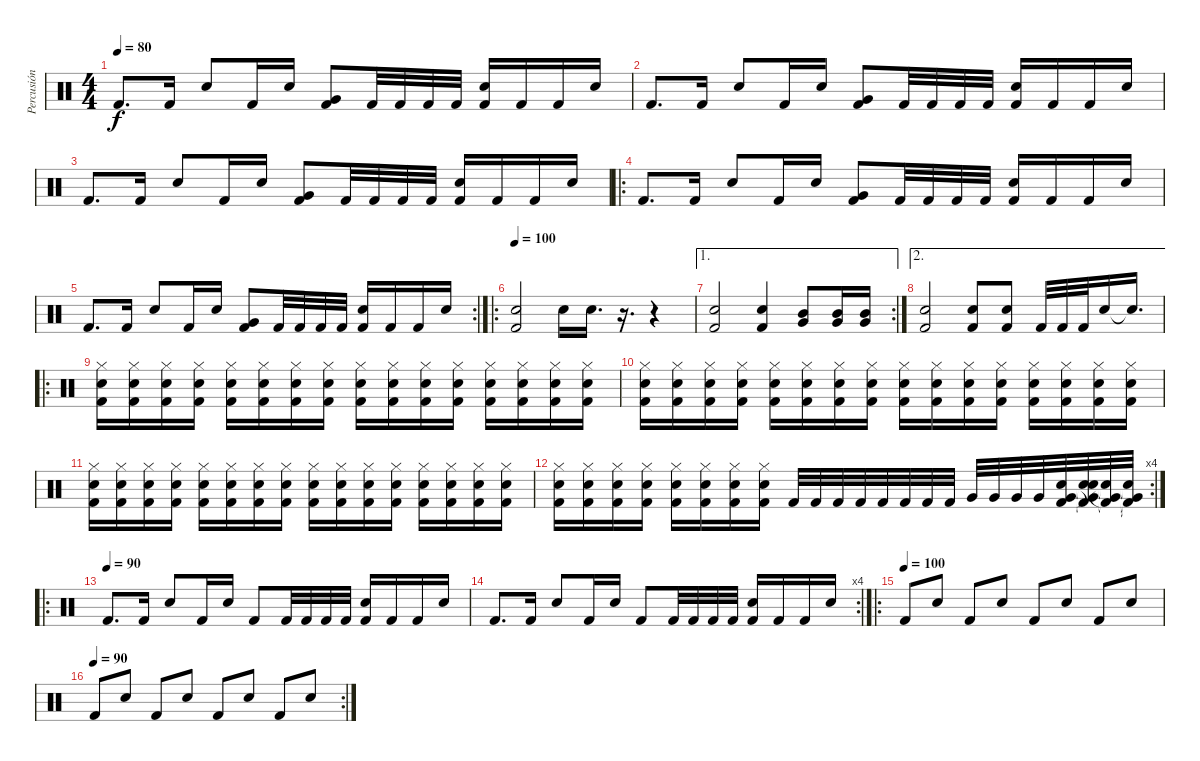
\track ("Percusión" "Percusión") {instrument percussion}
\staff {score}
\articulation defaults
\ts (4 4)
\tempo 80
\clef neutral
\ks c "Kick (hit) 2".8{d dy f} "Kick (hit) 2".16 "Snare (hit) 2".8 "Kick (hit) 2".16 "Snare (hit) 2".16
("Very Low Tom (hit)" "Kick (hit) 2").8 "Kick (hit) 2".32 "Kick (hit) 2".32 "Kick (hit) 2".32 "Kick (hit) 2".32 ("Snare (hit) 2" "Kick (hit) 2").16 "Kick (hit) 2".16 "Kick (hit) 2".16 "Snare (hit) 2".16 |
"Kick (hit) 2".8{d} "Kick (hit) 2".16 "Snare (hit) 2".8 "Kick (hit) 2".16 "Snare (hit) 2".16 ("Very Low Tom (hit)" "Kick (hit) 2").8 "Kick (hit) 2".32 "Kick (hit) 2".32 "Kick (hit) 2".32 "Kick (hit) 2".32 ("Snare (hit) 2" "Kick (hit) 2").16 "Kick (hit) 2".16 "Kick (hit) 2".16 "Snare (hit) 2".16 |
"Kick (hit) 2".8{d} "Kick (hit) 2".16 "Snare (hit) 2".8 "Kick (hit) 2".16 "Snare (hit) 2".16 ("Very Low Tom (hit)" "Kick (hit) 2").8 "Kick (hit) 2".32 "Kick (hit) 2".32 "Kick (hit) 2".32 "Kick (hit) 2".32 ("Snare (hit) 2" "Kick (hit) 2").16 "Kick (hit) 2".16 "Kick (hit) 2".16 "Snare (hit) 2".16 |
\ro "Kick (hit) 2".8{d} "Kick (hit) 2".16 "Snare (hit) 2".8 "Kick (hit) 2".16 "Snare (hit) 2".16
("Very Low Tom (hit)" "Kick (hit) 2").8 "Kick (hit) 2".32 "Kick (hit) 2".32 "Kick (hit) 2".32 "Kick (hit) 2".32 ("Snare (hit) 2" "Kick (hit) 2").16 "Kick (hit) 2".16 "Kick (hit) 2".16 "Snare (hit) 2".16 |
\rc 2 "Kick (hit) 2".8{d} "Kick (hit) 2".16 "Snare (hit) 2".8 "Kick (hit) 2".16 "Snare (hit) 2".16
("Very Low Tom (hit)" "Kick (hit) 2").8 "Kick (hit) 2".32 "Kick (hit) 2".32 "Kick (hit) 2".32 "Kick (hit) 2".32 ("Snare (hit) 2" "Kick (hit) 2").16 "Kick (hit) 2".16 "Kick (hit) 2".16 "Snare (hit) 2".16 |
\ro
\tempo 100
("Snare (hit) 2" "Kick (hit) 2").2 "Snare (hit) 2".16 "Snare (hit) 2".16{d} r.16{d} r.4 |
\ae 1
\rc 2
("Snare (hit) 2" "Kick (hit) 2").2 ("Snare (hit) 2" "Kick (hit) 2").4 ("Very Low Tom (hit)" "Mid Tom (hit)").8 ("Very Low Tom (hit)" "Mid Tom (hit)").16 ("Very Low Tom (hit)" "Mid Tom (hit)").16 |
\ae 2
("Snare (hit) 2" "Kick (hit) 2").2 ("Snare (hit) 2" "Kick (hit) 2").8 ("Snare (hit) 2" "Kick (hit) 2").8 "Kick (hit) 2".32 "Kick (hit) 2".32 "Kick (hit) 2".32 "Snare (hit) 2".16 "Snare (hit)"{t}.16{d} |
\ro
("Hi-Hat (closed)" "Snare (hit) 2" "Kick (hit) 2").16 ("Hi-Hat (closed)" "Snare (hit) 2" "Kick (hit) 2").16 ("Hi-Hat (closed)" "Snare (hit) 2" "Kick (hit) 2").16 ("Hi-Hat (closed)" "Snare (hit) 2" "Kick (hit) 2").16 ("Hi-Hat (closed)" "Snare (hit) 2" "Kick (hit) 2").16 ("Hi-Hat (closed)" "Snare (hit) 2" "Kick (hit) 2").16 ("Hi-Hat (closed)" "Snare (hit) 2" "Kick (hit) 2").16 ("Hi-Hat (closed)" "Snare (hit) 2" "Kick (hit) 2").16 ("Hi-Hat (closed)" "Snare (hit) 2" "Kick (hit) 2").16 ("Hi-Hat (closed)" "Snare (hit) 2" "Kick (hit) 2").16 ("Hi-Hat (closed)" "Snare (hit) 2" "Kick (hit) 2").16 ("Hi-Hat (closed)" "Snare (hit) 2" "Kick (hit) 2").16 ("Hi-Hat (closed)" "Snare (hit) 2" "Kick (hit) 2").16 ("Hi-Hat (closed)" "Snare (hit) 2" "Kick (hit) 2").16 ("Hi-Hat (closed)" "Snare (hit) 2" "Kick (hit) 2").16 ("Hi-Hat (closed)" "Snare (hit) 2" "Kick (hit) 2").16 |
("Hi-Hat (closed)" "Snare (hit) 2" "Kick (hit) 2").16 ("Hi-Hat (closed)" "Snare (hit) 2" "Kick (hit) 2").16 ("Hi-Hat (closed)" "Snare (hit) 2" "Kick (hit) 2").16 ("Hi-Hat (closed)" "Snare (hit) 2" "Kick (hit) 2").16 ("Hi-Hat (closed)" "Snare (hit) 2" "Kick (hit) 2").16 ("Hi-Hat (closed)" "Snare (hit) 2" "Kick (hit) 2").16 ("Hi-Hat (closed)" "Snare (hit) 2" "Kick (hit) 2").16 ("Hi-Hat (closed)" "Snare (hit) 2" "Kick (hit) 2").16 ("Hi-Hat (closed)" "Snare (hit) 2" "Kick (hit) 2").16 ("Hi-Hat (closed)" "Snare (hit) 2" "Kick (hit) 2").16 ("Hi-Hat (closed)" "Snare (hit) 2" "Kick (hit) 2").16 ("Hi-Hat (closed)" "Snare (hit) 2" "Kick (hit) 2").16 ("Hi-Hat (closed)" "Snare (hit) 2" "Kick (hit) 2").16 ("Hi-Hat (closed)" "Snare (hit) 2" "Kick (hit) 2").16 ("Hi-Hat (closed)" "Snare (hit) 2" "Kick (hit) 2").16 ("Hi-Hat (closed)" "Snare (hit) 2" "Kick (hit) 2").16 |
("Hi-Hat (closed)" "Snare (hit) 2" "Kick (hit) 2").16 ("Hi-Hat (closed)" "Snare (hit) 2" "Kick (hit) 2").16 ("Hi-Hat (closed)" "Snare (hit) 2" "Kick (hit) 2").16 ("Hi-Hat (closed)" "Snare (hit) 2" "Kick (hit) 2").16 ("Hi-Hat (closed)" "Snare (hit) 2" "Kick (hit) 2").16 ("Hi-Hat (closed)" "Snare (hit) 2" "Kick (hit) 2").16 ("Hi-Hat (closed)" "Snare (hit) 2" "Kick (hit) 2").16 ("Hi-Hat (closed)" "Snare (hit) 2" "Kick (hit) 2").16 ("Hi-Hat (closed)" "Snare (hit) 2" "Kick (hit) 2").16 ("Hi-Hat (closed)" "Snare (hit) 2" "Kick (hit) 2").16 ("Hi-Hat (closed)" "Snare (hit) 2" "Kick (hit) 2").16 ("Hi-Hat (closed)" "Snare (hit) 2" "Kick (hit) 2").16 ("Hi-Hat (closed)" "Snare (hit) 2" "Kick (hit) 2").16 ("Hi-Hat (closed)" "Snare (hit) 2" "Kick (hit) 2").16 ("Hi-Hat (closed)" "Snare (hit) 2" "Kick (hit) 2").16 ("Hi-Hat (closed)" "Snare (hit) 2" "Kick (hit) 2").16 |
\rc 4
("Hi-Hat (closed)" "Snare (hit) 2" "Kick (hit) 2").16 ("Hi-Hat (closed)" "Snare (hit) 2" "Kick (hit) 2").16 ("Hi-Hat (closed)" "Snare (hit) 2" "Kick (hit) 2").16 ("Hi-Hat (closed)" "Snare (hit) 2" "Kick (hit) 2").16 ("Hi-Hat (closed)" "Snare (hit) 2" "Kick (hit) 2").16 ("Hi-Hat (closed)" "Snare (hit) 2" "Kick (hit) 2").16 ("Hi-Hat (closed)" "Snare (hit) 2" "Kick (hit) 2").16 ("Hi-Hat (closed)" "Snare (hit) 2" "Kick (hit) 2").16 "Kick (hit) 2".32 "Kick (hit) 2".32 "Kick (hit) 2".32 "Kick (hit) 2".32 "Kick (hit) 2".32 "Kick (hit) 2".32 "Kick (hit) 2".32 "Kick (hit) 2".32 "Very Low Tom (hit)".32 "Very Low Tom (hit)".32 "Very Low Tom (hit)".32 "Very Low Tom (hit)".32 ("Very Low Tom (hit)" "Snare (hit) 2" "Kick (hit) 2").32 ("Very Low Tom (hit)"{t} "Snare (hit) 2"{t} "Snare (hit)"{t} "Kick (hit) 2").32 ("Very Low Tom (hit)"{t} "Snare (hit) 2"{t} "Kick (hit) 2"{t}).32 ("Very Low Tom (hit)"{t} "Snare (hit) 2"{t} "Kick (hit) 2"{t}).32 |
\ro
\tempo (90)
"Kick (hit) 2".8{d} "Kick (hit) 2".16 "Snare (hit) 2".8 "Kick (hit) 2".16 "Snare (hit) 2".16 "Kick (hit) 2".8 "Kick (hit) 2".32 "Kick (hit) 2".32 "Kick (hit) 2".32 "Kick (hit) 2".32 ("Snare (hit) 2" "Kick (hit) 2").16 "Kick (hit) 2".16 "Kick (hit) 2".16 "Snare (hit) 2".16 |
\rc 4 "Kick (hit) 2".8{d} "Kick (hit) 2".16 "Snare (hit) 2".8 "Kick (hit) 2".16 "Snare (hit) 2".16 "Kick (hit) 2".8 "Kick (hit) 2".32 "Kick (hit) 2".32 "Kick (hit) 2".32 "Kick (hit) 2".32
("Snare (hit) 2" "Kick (hit) 2").16 "Kick (hit) 2".16 "Kick (hit) 2".16 "Snare (hit) 2".16 |
\ro
\tempo 90
\tempo (100)
"Kick (hit) 2".8 "Snare (hit) 2".8 "Kick (hit) 2".8 "Snare (hit) 2".8 "Kick (hit) 2".8 "Snare (hit) 2".8 "Kick (hit) 2".8 "Snare (hit) 2".8 |
\rc 2
\tempo (90)
"Kick (hit) 2".8 "Snare (hit) 2".8 "Kick (hit) 2".8 "Snare (hit) 2".8 "Kick (hit) 2".8 "Snare (hit) 2".8 "Kick (hit) 2".8 "Snare (hit) 2".8
